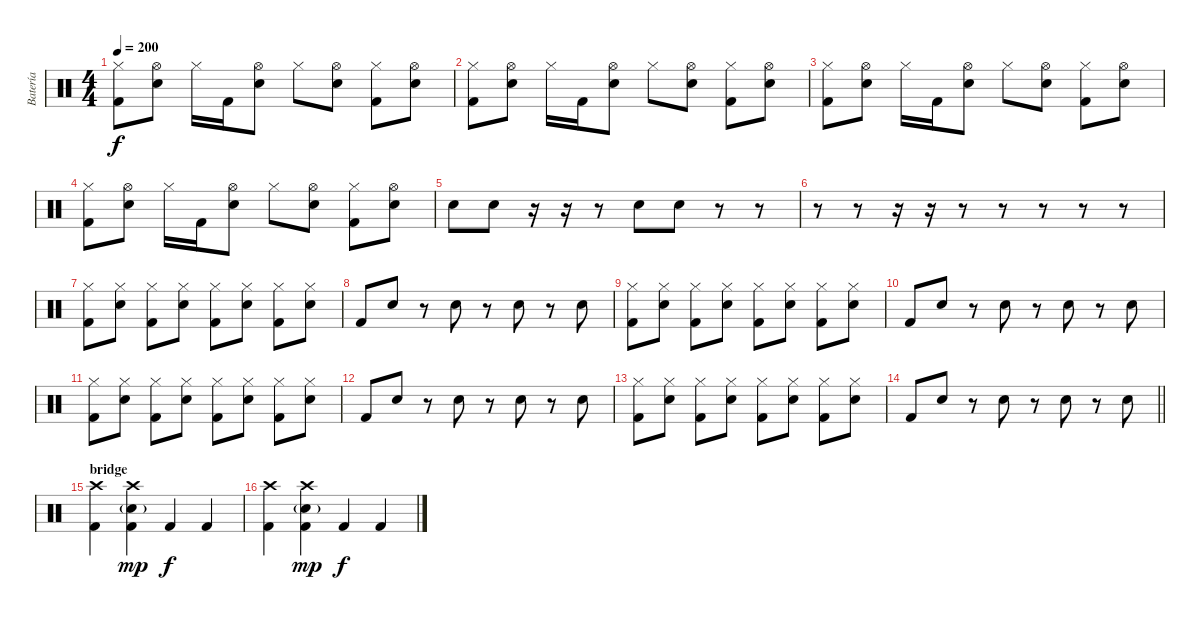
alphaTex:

\track ("Batería" "Batería") {instrument percussion}
\staff {score}
\articulation defaults
\ts (4 4)
\tempo 200
\clef neutral
\ks c
("Hi-Hat (closed)" "Kick (hit) 2").8{dy f} ("Hi-Hat (open)" "Snare (hit) 2").8 "Hi-Hat (closed)".16 "Kick (hit) 2".16 ("Hi-Hat (open)" "Snare (hit) 2").8 "Hi-Hat (closed)".8 ("Hi-Hat (open)" "Snare (hit) 2").8 ("Hi-Hat (closed)" "Kick (hit) 2").8 ("Hi-Hat (open)" "Snare (hit) 2").8 |
("Hi-Hat (closed)" "Kick (hit) 2").8 ("Hi-Hat (open)" "Snare (hit) 2").8 "Hi-Hat (closed)".16 "Kick (hit) 2".16 ("Hi-Hat (open)" "Snare (hit) 2").8 "Hi-Hat (closed)".8 ("Hi-Hat (open)" "Snare (hit) 2").8 ("Hi-Hat (closed)" "Kick (hit) 2").8 ("Hi-Hat (open)" "Snare (hit) 2").8 |
("Hi-Hat (closed)" "Kick (hit) 2").8 ("Hi-Hat (open)" "Snare (hit) 2").8 "Hi-Hat (closed)".16 "Kick (hit) 2".16 ("Hi-Hat (open)" "Snare (hit) 2").8 "Hi-Hat (closed)".8 ("Hi-Hat (open)" "Snare (hit) 2").8 ("Hi-Hat (closed)" "Kick (hit) 2").8 ("Hi-Hat (open)" "Snare (hit) 2").8 |
("Hi-Hat (closed)" "Kick (hit) 2").8 ("Hi-Hat (open)" "Snare (hit) 2").8 "Hi-Hat (closed)".16 "Kick (hit) 2".16 ("Hi-Hat (open)" "Snare (hit) 2").8 "Hi-Hat (closed)".8 ("Hi-Hat (open)" "Snare (hit) 2").8 ("Hi-Hat (closed)" "Kick (hit) 2").8 ("Hi-Hat (open)" "Snare (hit) 2").8 |
"Snare (hit) 2".8 "Snare (hit) 2".8 r.16 r.16 r.8 "Snare (hit) 2".8 "Snare (hit) 2".8 r.8 r.8 |
r.8 r.8 r.16 r.16 r.8 r.8 r.8 r.8 r.8 |
("Hi-Hat (closed)" "Kick (hit) 2").8 ("Hi-Hat (closed)" "Snare (hit) 2").8 ("Hi-Hat (closed)" "Kick (hit) 2").8 ("Hi-Hat (closed)" "Snare (hit) 2").8 ("Hi-Hat (closed)" "Kick (hit) 2").8 ("Hi-Hat (closed)" "Snare (hit) 2").8 ("Hi-Hat (closed)" "Kick (hit) 2").8 ("Hi-Hat (closed)" "Snare (hit) 2").8 |
"Kick (hit) 2".8 "Snare (hit) 2".8 r.8 "Snare (hit) 2".8 r.8 "Snare (hit) 2".8 r.8 "Snare (hit) 2".8 |
("Hi-Hat (closed)" "Kick (hit) 2").8 ("Hi-Hat (closed)" "Snare (hit) 2").8 ("Hi-Hat (closed)" "Kick (hit) 2").8 ("Hi-Hat (closed)" "Snare (hit) 2").8 ("Hi-Hat (closed)" "Kick (hit) 2").8 ("Hi-Hat (closed)" "Snare (hit) 2").8 ("Hi-Hat (closed)" "Kick (hit) 2").8 ("Hi-Hat (closed)" "Snare (hit) 2").8 |
"Kick (hit) 2".8 "Snare (hit) 2".8 r.8 "Snare (hit) 2".8 r.8 "Snare (hit) 2".8 r.8 "Snare (hit) 2".8 |
("Hi-Hat (closed)" "Kick (hit) 2").8 ("Hi-Hat (closed)" "Snare (hit) 2").8 ("Hi-Hat (closed)" "Kick (hit) 2").8 ("Hi-Hat (closed)" "Snare (hit) 2").8 ("Hi-Hat (closed)" "Kick (hit) 2").8 ("Hi-Hat (closed)" "Snare (hit) 2").8 ("Hi-Hat (closed)" "Kick (hit) 2").8 ("Hi-Hat (closed)" "Snare (hit) 2").8 |
"Kick (hit) 2".8 "Snare (hit) 2".8 r.8 "Snare (hit) 2".8 r.8 "Snare (hit) 2".8 r.8 "Snare (hit) 2".8 |
("Hi-Hat (closed)" "Kick (hit) 2").8 ("Hi-Hat (closed)" "Snare (hit) 2").8 ("Hi-Hat (closed)" "Kick (hit) 2").8 ("Hi-Hat (closed)" "Snare (hit) 2").8 ("Hi-Hat (closed)" "Kick (hit) 2").8 ("Hi-Hat (closed)" "Snare (hit) 2").8 ("Hi-Hat (closed)" "Kick (hit) 2").8 ("Hi-Hat (closed)" "Snare (hit) 2").8 |
\barLineRight lightlight "Kick (hit) 2".8 "Snare (hit) 2".8
r.8 "Snare (hit) 2".8 r.8 "Snare (hit) 2".8 r.8 "Snare (hit) 2".8 |
\section ("" "bridge")
("Crash high (hit)" "Kick (hit) 2").4 ("Crash high (hit)" "Snare (hit) 2"{g} "Kick (hit) 2").4{dy mp} "Kick (hit) 2".4{dy f} "Kick (hit) 2".4 |
("Crash high (hit)" "Kick (hit) 2").4 ("Crash high (hit)" "Snare (hit) 2"{g} "Kick (hit) 2").4{dy mp} "Kick (hit) 2".4{dy f} "Kick (hit) 2".4
